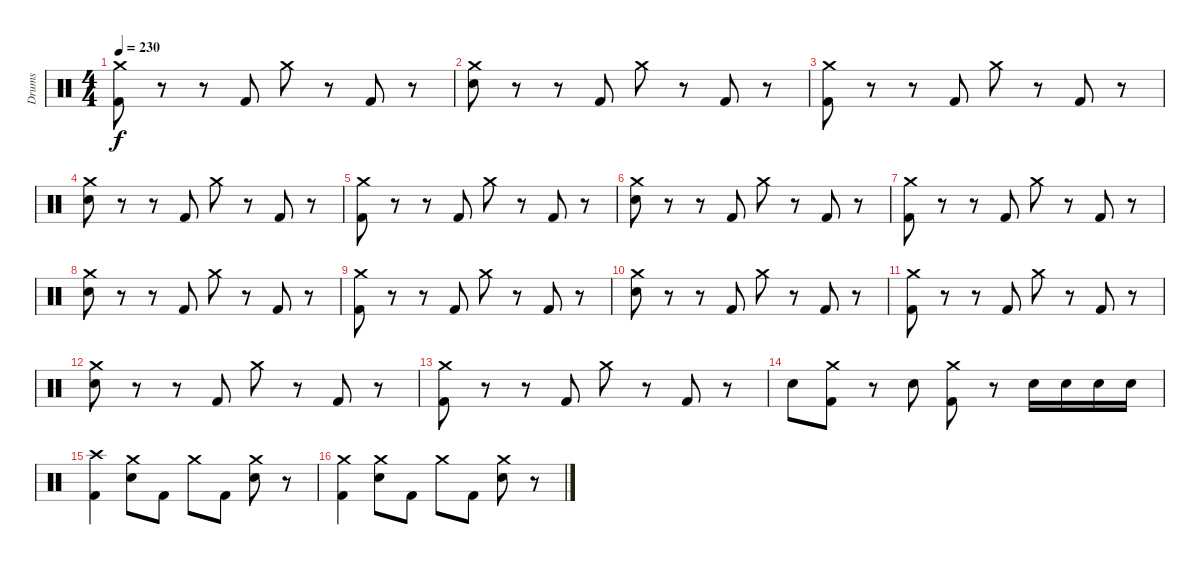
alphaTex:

\track ("Drums" "Drums") {instrument percussion}
\staff {score}
\articulation defaults
\ts (4 4)
\tempo 230
\clef neutral
\ks c
("Kick (hit) 2" "Crash medium (hit)").8{dy f} r.8 r.8 "Kick (hit) 2".8 "Crash medium (hit)".8 r.8 "Kick (hit) 2".8 r.8 |
("Electric Snare (hit)" "Crash medium (hit)").8 r.8 r.8 "Kick (hit) 2".8 "Crash medium (hit)".8 r.8 "Kick (hit) 2".8 r.8 |
("Kick (hit) 2" "Crash medium (hit)").8 r.8 r.8 "Kick (hit) 2".8 "Crash medium (hit)".8 r.8 "Kick (hit) 2".8 r.8 |
("Electric Snare (hit)" "Crash medium (hit)").8 r.8 r.8 "Kick (hit) 2".8 "Crash medium (hit)".8 r.8 "Kick (hit) 2".8 r.8 |
("Kick (hit) 2" "Crash medium (hit)").8 r.8 r.8 "Kick (hit) 2".8 "Crash medium (hit)".8 r.8 "Kick (hit) 2".8 r.8 |
("Electric Snare (hit)" "Crash medium (hit)").8 r.8 r.8 "Kick (hit) 2".8 "Crash medium (hit)".8 r.8 "Kick (hit) 2".8 r.8 |
("Kick (hit) 2" "Crash medium (hit)").8 r.8 r.8 "Kick (hit) 2".8 "Crash medium (hit)".8 r.8 "Kick (hit) 2".8 r.8 |
("Electric Snare (hit)" "Crash medium (hit)").8 r.8 r.8 "Kick (hit) 2".8 "Crash medium (hit)".8 r.8 "Kick (hit) 2".8 r.8 |
("Kick (hit) 2" "Crash medium (hit)").8 r.8 r.8 "Kick (hit) 2".8 "Crash medium (hit)".8 r.8 "Kick (hit) 2".8 r.8 |
("Electric Snare (hit)" "Crash medium (hit)").8 r.8 r.8 "Kick (hit) 2".8 "Crash medium (hit)".8 r.8 "Kick (hit) 2".8 r.8 |
("Kick (hit) 2" "Crash medium (hit)").8 r.8 r.8 "Kick (hit) 2".8 "Crash medium (hit)".8 r.8 "Kick (hit) 2".8 r.8 |
("Electric Snare (hit)" "Crash medium (hit)").8 r.8 r.8 "Kick (hit) 2".8 "Crash medium (hit)".8 r.8 "Kick (hit) 2".8 r.8 |
("Kick (hit) 2" "Crash medium (hit)").8 r.8 r.8 "Kick (hit) 2".8 "Crash medium (hit)".8 r.8 "Kick (hit) 2".8 r.8 |
"Electric Snare (hit)".8 ("Kick (hit) 2" "Crash medium (hit)").8 r.8 "Electric Snare (hit)".8 ("Kick (hit) 2" "Crash medium (hit)").8 r.8 "Electric Snare (hit)".16 "Electric Snare (hit)".16 "Electric Snare (hit)".16 "Electric Snare (hit)".16 |
("Kick (hit) 2" "Crash high (hit)").4 ("Electric Snare (hit)" "Crash medium (hit)").8 "Kick (hit) 2".8 "Crash medium (hit)".8 "Kick (hit) 2".8 ("Electric Snare (hit)" "Crash medium (hit)").8 r.8 |
("Kick (hit) 2" "Crash medium (hit)").4 ("Electric Snare (hit)" "Crash medium (hit)").8 "Kick (hit) 2".8 "Crash medium (hit)".8 "Kick (hit) 2".8 ("Electric Snare (hit)" "Crash medium (hit)").8 r.8
